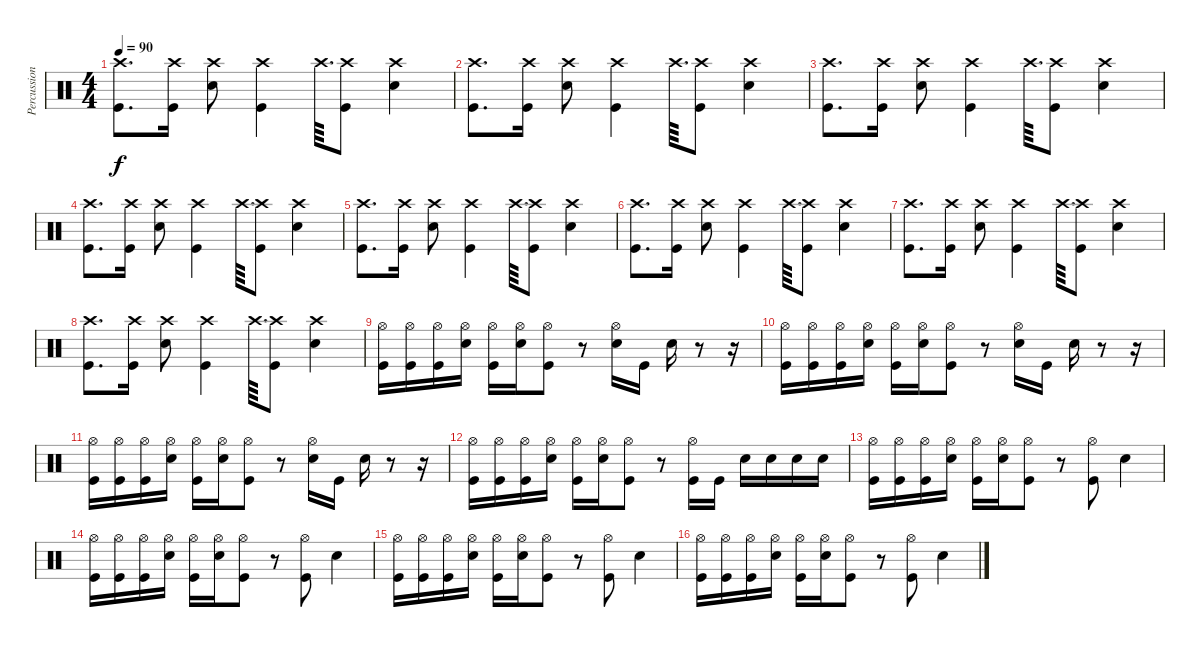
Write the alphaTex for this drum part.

\track ("Percussion courtesy of unknown user" "Percussion") {instrument percussion}
\staff {score}
\articulation defaults
\ts (4 4)
\tempo 90
\clef neutral
\ks c
("Crash high (hit)" "Kick (hit)").8{d dy f} ("Crash high (hit)" "Kick (hit)").16 ("Crash high (hit)" "Snare (hit) 2").8 ("Crash high (hit)" "Kick (hit)").4 "Crash high (hit)".64{d} ("Crash high (hit)" "Kick (hit)").8 ("Crash high (hit)" "Snare (hit) 2").4 |
("Crash high (hit)" "Kick (hit)").8{d} ("Crash high (hit)" "Kick (hit)").16 ("Crash high (hit)" "Snare (hit) 2").8 ("Crash high (hit)" "Kick (hit)").4 "Crash high (hit)".64{d} ("Crash high (hit)" "Kick (hit)").8 ("Crash high (hit)" "Snare (hit) 2").4 |
("Crash high (hit)" "Kick (hit)").8{d} ("Crash high (hit)" "Kick (hit)").16 ("Crash high (hit)" "Snare (hit) 2").8 ("Crash high (hit)" "Kick (hit)").4 "Crash high (hit)".64{d} ("Crash high (hit)" "Kick (hit)").8 ("Crash high (hit)" "Snare (hit) 2").4 |
("Crash high (hit)" "Kick (hit)").8{d} ("Crash high (hit)" "Kick (hit)").16 ("Crash high (hit)" "Snare (hit) 2").8 ("Crash high (hit)" "Kick (hit)").4 "Crash high (hit)".64{d} ("Crash high (hit)" "Kick (hit)").8 ("Crash high (hit)" "Snare (hit) 2").4 |
("Crash high (hit)" "Kick (hit)").8{d} ("Crash high (hit)" "Kick (hit)").16 ("Crash high (hit)" "Snare (hit) 2").8 ("Crash high (hit)" "Kick (hit)").4 "Crash high (hit)".64{d} ("Crash high (hit)" "Kick (hit)").8 ("Crash high (hit)" "Snare (hit) 2").4 |
("Crash high (hit)" "Kick (hit)").8{d} ("Crash high (hit)" "Kick (hit)").16 ("Crash high (hit)" "Snare (hit) 2").8 ("Crash high (hit)" "Kick (hit)").4 "Crash high (hit)".64{d} ("Crash high (hit)" "Kick (hit)").8 ("Crash high (hit)" "Snare (hit) 2").4 |
("Crash high (hit)" "Kick (hit)").8{d} ("Crash high (hit)" "Kick (hit)").16 ("Crash high (hit)" "Snare (hit) 2").8 ("Crash high (hit)" "Kick (hit)").4 "Crash high (hit)".64{d} ("Crash high (hit)" "Kick (hit)").8 ("Crash high (hit)" "Snare (hit) 2").4 |
("Crash high (hit)" "Kick (hit)").8{d} ("Crash high (hit)" "Kick (hit)").16 ("Crash high (hit)" "Snare (hit) 2").8 ("Crash high (hit)" "Kick (hit)").4 "Crash high (hit)".64{d} ("Crash high (hit)" "Kick (hit)").8 ("Crash high (hit)" "Snare (hit) 2").4 |
("Hi-Hat (open)" "Kick (hit)").16 ("Hi-Hat (open)" "Kick (hit)").16 ("Hi-Hat (open)" "Kick (hit)").16 ("Hi-Hat (open)" "Snare (hit) 2").16 ("Hi-Hat (open)" "Kick (hit)").16 ("Hi-Hat (open)" "Snare (hit) 2").16 ("Hi-Hat (open)" "Kick (hit)").8 r.8 ("Hi-Hat (open)" "Snare (hit) 2").16 "Kick (hit)".16 "Snare (hit) 2".16 r.8 r.16 |
("Hi-Hat (open)" "Kick (hit)").16 ("Hi-Hat (open)" "Kick (hit)").16 ("Hi-Hat (open)" "Kick (hit)").16 ("Hi-Hat (open)" "Snare (hit) 2").16 ("Hi-Hat (open)" "Kick (hit)").16 ("Hi-Hat (open)" "Snare (hit) 2").16 ("Hi-Hat (open)" "Kick (hit)").8 r.8 ("Hi-Hat (open)" "Snare (hit) 2").16 "Kick (hit)".16 "Snare (hit) 2".16 r.8 r.16 |
("Hi-Hat (open)" "Kick (hit)").16 ("Hi-Hat (open)" "Kick (hit)").16 ("Hi-Hat (open)" "Kick (hit)").16 ("Hi-Hat (open)" "Snare (hit) 2").16 ("Hi-Hat (open)" "Kick (hit)").16 ("Hi-Hat (open)" "Snare (hit) 2").16 ("Hi-Hat (open)" "Kick (hit)").8 r.8 ("Hi-Hat (open)" "Snare (hit) 2").16 "Kick (hit)".16 "Snare (hit) 2".16 r.8 r.16 |
("Hi-Hat (open)" "Kick (hit)").16 ("Hi-Hat (open)" "Kick (hit)").16 ("Hi-Hat (open)" "Kick (hit)").16 ("Hi-Hat (open)" "Snare (hit) 2").16 ("Hi-Hat (open)" "Kick (hit)").16 ("Hi-Hat (open)" "Snare (hit) 2").16 ("Hi-Hat (open)" "Kick (hit)").8 r.8 ("Hi-Hat (open)" "Kick (hit)").16 "Kick (hit)".16 "Snare (hit) 2".16 "Snare (hit) 2".16 "Snare (hit) 2".16 "Snare (hit) 2".16 |
("Hi-Hat (open)" "Kick (hit)").16 ("Hi-Hat (open)" "Kick (hit)").16 ("Hi-Hat (open)" "Kick (hit)").16 ("Hi-Hat (open)" "Snare (hit) 2").16 ("Hi-Hat (open)" "Kick (hit)").16 ("Hi-Hat (open)" "Snare (hit) 2").16 ("Hi-Hat (open)" "Kick (hit)").8 r.8 ("Hi-Hat (open)" "Kick (hit)").8 "Snare (hit) 2".4 |
("Hi-Hat (open)" "Kick (hit)").16 ("Hi-Hat (open)" "Kick (hit)").16 ("Hi-Hat (open)" "Kick (hit)").16 ("Hi-Hat (open)" "Snare (hit) 2").16 ("Hi-Hat (open)" "Kick (hit)").16 ("Hi-Hat (open)" "Snare (hit) 2").16 ("Hi-Hat (open)" "Kick (hit)").8 r.8 ("Hi-Hat (open)" "Kick (hit)").8 "Snare (hit) 2".4 |
("Hi-Hat (open)" "Kick (hit)").16 ("Hi-Hat (open)" "Kick (hit)").16 ("Hi-Hat (open)" "Kick (hit)").16 ("Hi-Hat (open)" "Snare (hit) 2").16 ("Hi-Hat (open)" "Kick (hit)").16 ("Hi-Hat (open)" "Snare (hit) 2").16 ("Hi-Hat (open)" "Kick (hit)").8 r.8 ("Hi-Hat (open)" "Kick (hit)").8 "Snare (hit) 2".4 |
("Hi-Hat (open)" "Kick (hit)").16 ("Hi-Hat (open)" "Kick (hit)").16 ("Hi-Hat (open)" "Kick (hit)").16 ("Hi-Hat (open)" "Snare (hit) 2").16 ("Hi-Hat (open)" "Kick (hit)").16 ("Hi-Hat (open)" "Snare (hit) 2").16 ("Hi-Hat (open)" "Kick (hit)").8 r.8 ("Hi-Hat (open)" "Kick (hit)").8 "Snare (hit) 2".4
